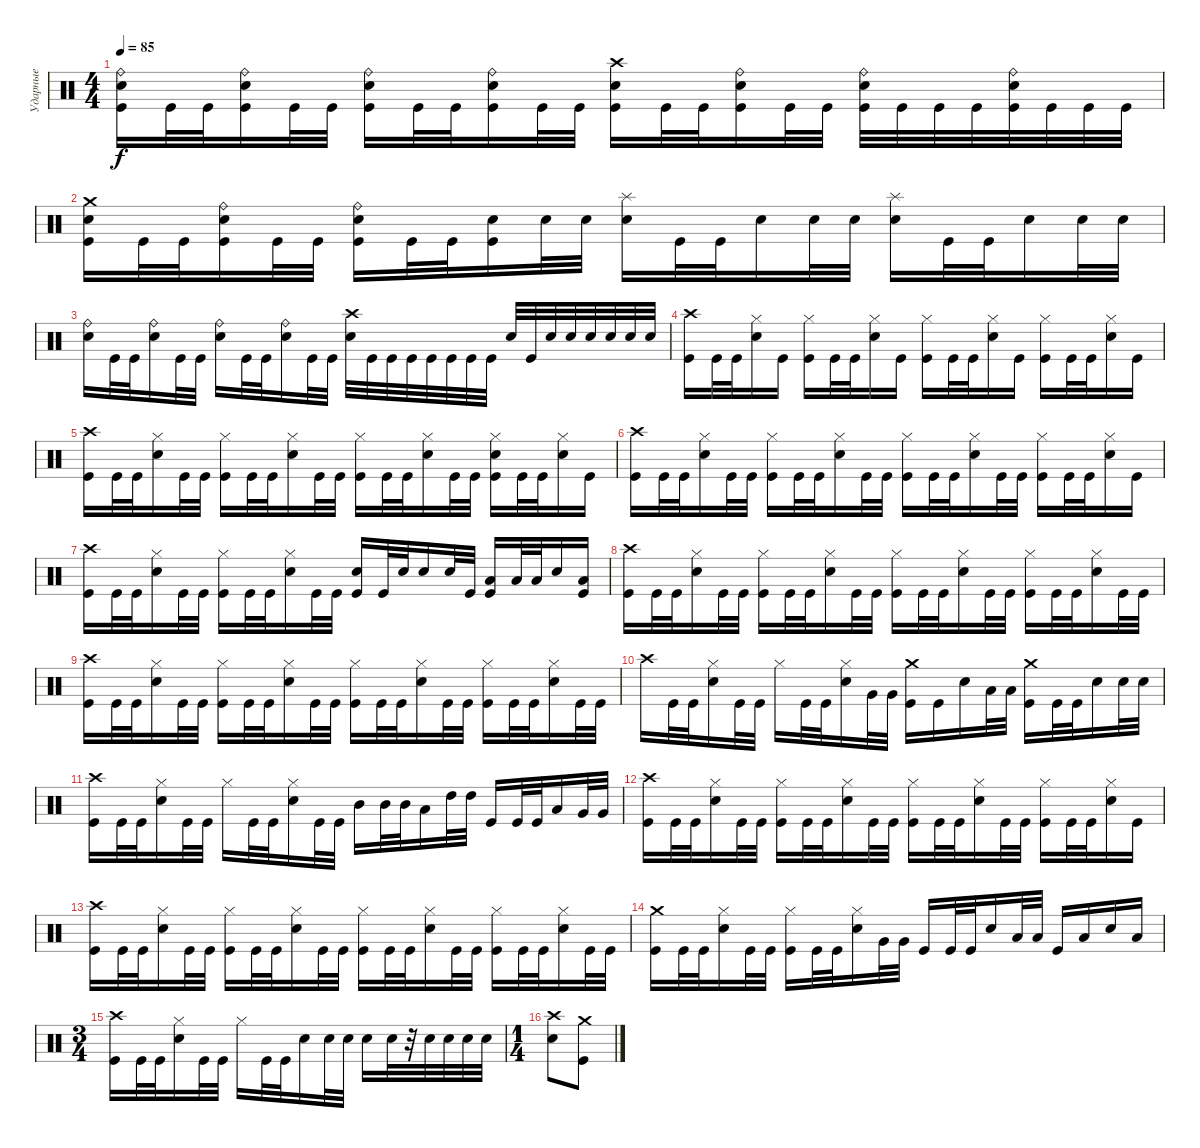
\track ("Ударные" "Ударные") {instrument percussion}
\staff {score}
\articulation defaults
\ts (4 4)
\tempo 85
\clef neutral
\ks c
("Ride (bell)" "Electric Snare (hit)" "Kick (hit)").16{dy f} "Kick (hit)".32 "Kick (hit)".32 ("Ride (bell)" "Electric Snare (hit)" "Kick (hit)").16 "Kick (hit)".32 "Kick (hit)".32 ("Ride (bell)" "Electric Snare (hit)" "Kick (hit)").16 "Kick (hit)".32 "Kick (hit)".32 ("Ride (bell)" "Electric Snare (hit)" "Kick (hit)").16 "Kick (hit)".32 "Kick (hit)".32 ("Crash high (hit)" "Electric Snare (hit)" "Kick (hit)").16 "Kick (hit)".32 "Kick (hit)".32 ("Ride (bell)" "Electric Snare (hit)" "Kick (hit)").16 "Kick (hit)".32 "Kick (hit)".32 ("Ride (bell)" "Electric Snare (hit)" "Kick (hit)").32 "Kick (hit)".32 "Kick (hit)".32 "Kick (hit)".32 ("Ride (bell)" "Electric Snare (hit)" "Kick (hit)").32 "Kick (hit)".32 "Kick (hit)".32 "Kick (hit)".32 |
("Crash medium (hit)" "Electric Snare (hit)" "Kick (hit)").16 "Kick (hit)".32 "Kick (hit)".32 ("Ride (bell)" "Electric Snare (hit)" "Kick (hit)").16 "Kick (hit)".32 "Kick (hit)".32 ("Ride (bell)" "Electric Snare (hit)" "Kick (hit)").16 "Kick (hit)".32 "Kick (hit)".32 ("Electric Snare (hit)" "Kick (hit)").16 "Electric Snare (hit)".32 "Electric Snare (hit)".32 ("Splash (hit)" "Electric Snare (hit)").16 "Kick (hit)".32 "Kick (hit)".32 "Electric Snare (hit)".16 "Electric Snare (hit)".32 "Electric Snare (hit)".32 ("Splash (hit)" "Electric Snare (hit)").16 "Kick (hit)".32 "Kick (hit)".32 "Electric Snare (hit)".16 "Electric Snare (hit)".32 "Electric Snare (hit)".32 |
("Ride (bell)" "Electric Snare (hit)").16 "Kick (hit)".32 "Kick (hit)".32 ("Ride (bell)" "Electric Snare (hit)").16 "Kick (hit)".32 "Kick (hit)".32 ("Ride (bell)" "Electric Snare (hit)").16 "Kick (hit)".32 "Kick (hit)".32 ("Ride (bell)" "Electric Snare (hit)").16 "Kick (hit)".32 "Kick (hit)".32 ("Crash high (hit)" "Electric Snare (hit)").32 "Kick (hit)".32 "Kick (hit)".32 "Kick (hit)".32 "Kick (hit)".32 "Kick (hit)".32 "Kick (hit)".32 "Kick (hit)".32 "Electric Snare (hit)".32 "Kick (hit)".32 "Electric Snare (hit)".32 "Electric Snare (hit)".32 "Electric Snare (hit)".32 "Electric Snare (hit)".32 "Electric Snare (hit)".32 "Electric Snare (hit)".32 |
("Crash high (hit)" "Kick (hit)").16 "Kick (hit)".32 "Kick (hit)".32 ("Hi-Hat (closed)" "Electric Snare (hit)").16 "Kick (hit)".16 ("Hi-Hat (closed)" "Kick (hit)").16 "Kick (hit)".32 "Kick (hit)".32 ("Hi-Hat (closed)" "Electric Snare (hit)").16 "Kick (hit)".16 ("Hi-Hat (closed)" "Kick (hit)").16 "Kick (hit)".32 "Kick (hit)".32 ("Hi-Hat (closed)" "Electric Snare (hit)").16 "Kick (hit)".16 ("Hi-Hat (closed)" "Kick (hit)").16 "Kick (hit)".32 "Kick (hit)".32 ("Hi-Hat (closed)" "Electric Snare (hit)").16 "Kick (hit)".16 |
("Crash high (hit)" "Kick (hit)").16 "Kick (hit)".32 "Kick (hit)".32 ("Hi-Hat (closed)" "Electric Snare (hit)").16 "Kick (hit)".32 "Kick (hit)".32 ("Hi-Hat (closed)" "Kick (hit)").16 "Kick (hit)".32 "Kick (hit)".32 ("Hi-Hat (closed)" "Electric Snare (hit)").16 "Kick (hit)".32 "Kick (hit)".32 ("Hi-Hat (closed)" "Kick (hit)").16 "Kick (hit)".32 "Kick (hit)".32 ("Hi-Hat (closed)" "Electric Snare (hit)").16 "Kick (hit)".32 "Kick (hit)".32 ("Hi-Hat (closed)" "Electric Snare (hit)" "Kick (hit)").16 "Kick (hit)".32 "Kick (hit)".32 ("Hi-Hat (closed)" "Electric Snare (hit)").16 "Kick (hit)".16 |
("Crash high (hit)" "Kick (hit)").16 "Kick (hit)".32 "Kick (hit)".32 ("Hi-Hat (closed)" "Electric Snare (hit)").16 "Kick (hit)".32 "Kick (hit)".32 ("Hi-Hat (closed)" "Kick (hit)").16 "Kick (hit)".32 "Kick (hit)".32 ("Hi-Hat (closed)" "Electric Snare (hit)").16 "Kick (hit)".32 "Kick (hit)".32 ("Hi-Hat (closed)" "Kick (hit)").16 "Kick (hit)".32 "Kick (hit)".32 ("Hi-Hat (closed)" "Electric Snare (hit)").16 "Kick (hit)".32 "Kick (hit)".32 ("Hi-Hat (closed)" "Kick (hit)").16 "Kick (hit)".32 "Kick (hit)".32 ("Hi-Hat (closed)" "Electric Snare (hit)").16 "Kick (hit)".16 |
("Crash high (hit)" "Kick (hit)").16 "Kick (hit)".32 "Kick (hit)".32 ("Hi-Hat (closed)" "Electric Snare (hit)").16 "Kick (hit)".32 "Kick (hit)".32 ("Hi-Hat (closed)" "Kick (hit)").16 "Kick (hit)".32 "Kick (hit)".32 ("Hi-Hat (closed)" "Electric Snare (hit)").16 "Kick (hit)".32 "Kick (hit)".32 ("Electric Snare (hit)" "Kick (hit)").16 "Kick (hit)".32 "Electric Snare (hit)".32 "Electric Snare (hit)".16 "Electric Snare (hit)".32 "Kick (hit)".32 ("Low Tom (hit)" "Kick (hit)").16 "Low Tom (hit)".32 "Low Tom (hit)".32 "Electric Snare (hit)".16 ("Low Tom (hit)" "Kick (hit)").16 |
("Crash high (hit)" "Kick (hit)").16 "Kick (hit)".32 "Kick (hit)".32 ("Hi-Hat (closed)" "Electric Snare (hit)").16 "Kick (hit)".32 "Kick (hit)".32 ("Hi-Hat (closed)" "Kick (hit)").16 "Kick (hit)".32 "Kick (hit)".32 ("Hi-Hat (closed)" "Electric Snare (hit)").16 "Kick (hit)".32 "Kick (hit)".32 ("Hi-Hat (closed)" "Kick (hit)").16 "Kick (hit)".32 "Kick (hit)".32 ("Hi-Hat (closed)" "Electric Snare (hit)").16 "Kick (hit)".32 "Kick (hit)".32 ("Hi-Hat (closed)" "Kick (hit)").16 "Kick (hit)".32 "Kick (hit)".32 ("Hi-Hat (closed)" "Electric Snare (hit)").16 "Kick (hit)".32 "Kick (hit)".32 |
("Crash high (hit)" "Kick (hit)").16 "Kick (hit)".32 "Kick (hit)".32 ("Hi-Hat (closed)" "Electric Snare (hit)").16 "Kick (hit)".32 "Kick (hit)".32 ("Hi-Hat (closed)" "Kick (hit)").16 "Kick (hit)".32 "Kick (hit)".32 ("Hi-Hat (closed)" "Electric Snare (hit)").16 "Kick (hit)".32 "Kick (hit)".32 ("Hi-Hat (closed)" "Kick (hit)").16 "Kick (hit)".32 "Kick (hit)".32 ("Hi-Hat (closed)" "Electric Snare (hit)").16 "Kick (hit)".32 "Kick (hit)".32 ("Hi-Hat (closed)" "Kick (hit)").16 "Kick (hit)".32 "Kick (hit)".32 ("Hi-Hat (closed)" "Electric Snare (hit)").16 "Kick (hit)".32 "Kick (hit)".32 |
"Crash high (hit)".16 "Kick (hit)".32 "Kick (hit)".32 ("Hi-Hat (closed)" "Electric Snare (hit)").16 "Kick (hit)".32 "Kick (hit)".32 "Hi-Hat (closed)".16 "Kick (hit)".32 "Kick (hit)".32 ("Hi-Hat (closed)" "Electric Snare (hit)").16 "Very Low Tom (hit)".32 "Very Low Tom (hit)".32 ("Crash medium (hit)" "Kick (hit)").16 "Kick (hit)".16 "Electric Snare (hit)".16 "Low Tom (hit)".32 "Low Tom (hit)".32 ("Crash medium (hit)" "Kick (hit)").16 "Kick (hit)".32 "Kick (hit)".32 "Electric Snare (hit)".16 "Electric Snare (hit)".32 "Electric Snare (hit)".32 |
("Crash high (hit)" "Kick (hit)").16 "Kick (hit)".32 "Kick (hit)".32 ("Hi-Hat (closed)" "Electric Snare (hit)").16 "Kick (hit)".32 "Kick (hit)".32 "Hi-Hat (closed)".16 "Kick (hit)".32 "Kick (hit)".32 ("Hi-Hat (closed)" "Electric Snare (hit)").16 "Kick (hit)".32 "Kick (hit)".32 "Mid Tom (hit)".16 "Mid Tom (hit)".32 "Mid Tom (hit)".32 "Low Tom (hit)".16 "High Tom (hit)".32 "High Tom (hit)".32 "Kick (hit)".16 "Kick (hit)".32 "Kick (hit)".32 "Low Tom (hit)".16 "Very Low Tom (hit)".32 "Very Low Tom (hit)".32 |
("Crash high (hit)" "Kick (hit)").16 "Kick (hit)".32 "Kick (hit)".32 ("Hi-Hat (closed)" "Electric Snare (hit)").16 "Kick (hit)".32 "Kick (hit)".32 ("Hi-Hat (closed)" "Kick (hit)").16 "Kick (hit)".32 "Kick (hit)".32 ("Hi-Hat (closed)" "Electric Snare (hit)").16 "Kick (hit)".32 "Kick (hit)".32 ("Hi-Hat (closed)" "Kick (hit)").16 "Kick (hit)".32 "Kick (hit)".32 ("Hi-Hat (closed)" "Electric Snare (hit)").16 "Kick (hit)".32 "Kick (hit)".32 ("Hi-Hat (closed)" "Kick (hit)").16 "Kick (hit)".32 "Kick (hit)".32 ("Hi-Hat (closed)" "Electric Snare (hit)").16 "Kick (hit)".16 |
("Crash high (hit)" "Kick (hit)").16 "Kick (hit)".32 "Kick (hit)".32 ("Hi-Hat (closed)" "Electric Snare (hit)").16 "Kick (hit)".32 "Kick (hit)".32 ("Hi-Hat (closed)" "Kick (hit)").16 "Kick (hit)".32 "Kick (hit)".32 ("Hi-Hat (closed)" "Electric Snare (hit)").16 "Kick (hit)".32 "Kick (hit)".32 ("Hi-Hat (closed)" "Kick (hit)").16 "Kick (hit)".32 "Kick (hit)".32 ("Hi-Hat (closed)" "Electric Snare (hit)").16 "Kick (hit)".32 "Kick (hit)".32 ("Hi-Hat (closed)" "Kick (hit)").16 "Kick (hit)".32 "Kick (hit)".32 ("Hi-Hat (closed)" "Electric Snare (hit)").16 "Kick (hit)".32 "Kick (hit)".32 |
("Crash medium (hit)" "Kick (hit)").16 "Kick (hit)".32 "Kick (hit)".32 ("Hi-Hat (closed)" "Electric Snare (hit)").16 "Kick (hit)".32 "Kick (hit)".32 ("Hi-Hat (closed)" "Kick (hit)").16 "Kick (hit)".32 "Kick (hit)".32 ("Hi-Hat (closed)" "Electric Snare (hit)").16 "Very Low Tom (hit)".32 "Very Low Tom (hit)".32 "Kick (hit)".16 "Kick (hit)".32 "Kick (hit)".32 "Electric Snare (hit)".16 "Low Tom (hit)".32 "Low Tom (hit)".32 "Kick (hit)".16 "Low Tom (hit)".16 "Electric Snare (hit)".16 "Low Tom (hit)".16 |
\ts (3 4)
("Crash high (hit)" "Kick (hit)").16 "Kick (hit)".32 "Kick (hit)".32 ("Hi-Hat (closed)" "Electric Snare (hit)").16 "Kick (hit)".32 "Kick (hit)".32 "Hi-Hat (closed)".16 "Kick (hit)".32 "Kick (hit)".32 "Electric Snare (hit)".16 "Electric Snare (hit)".32 "Electric Snare (hit)".32 "Electric Snare (hit)".16 "Electric Snare (hit)".32 r.32 "Electric Snare (hit)".32 "Electric Snare (hit)".32 "Electric Snare (hit)".32 "Electric Snare (hit)".32 |
\ts (1 4)
("Crash high (hit)" "Electric Snare (hit)").8 ("Crash medium (hit)" "Kick (hit)").8
